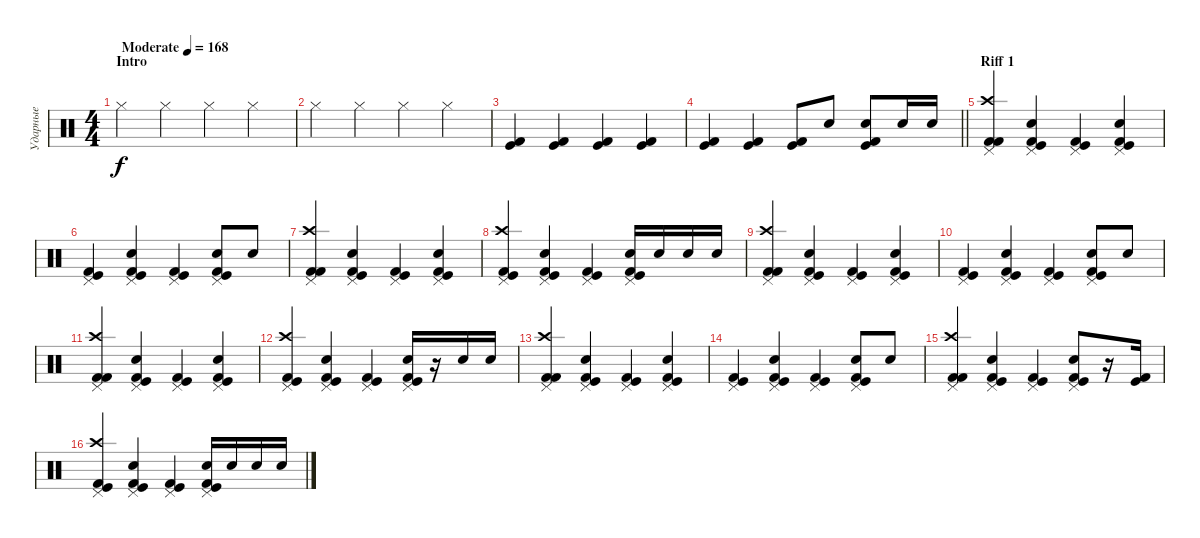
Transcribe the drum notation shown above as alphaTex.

\track ("Ударные" "Ударные") {instrument percussion}
\staff {score}
\articulation defaults
\ts (4 4)
\section ("" "Intro")
\tempo (168 "Moderate")
\clef neutral
\ks c "Hi-Hat (closed)".4{dy f} "Hi-Hat (closed)".4 "Hi-Hat (closed)".4 "Hi-Hat (closed)".4
|
"Hi-Hat (closed)".4 "Hi-Hat (closed)".4 "Hi-Hat (closed)".4 "Hi-Hat (closed)".4 |
("Kick (hit)" "Kick (hit) 2").4 ("Kick (hit)" "Kick (hit) 2").4 ("Kick (hit)" "Kick (hit) 2").4 ("Kick (hit)" "Kick (hit) 2").4 |
\barLineRight lightlight
("Kick (hit)" "Kick (hit) 2").4 ("Kick (hit)" "Kick (hit) 2").4 ("Kick (hit)" "Kick (hit) 2").8 "Electric Snare (hit)".8 ("Electric Snare (hit)" "Kick (hit)" "Kick (hit) 2").8 "Electric Snare (hit)".16 "Electric Snare (hit)".16 |
\section ("" "Riff 1")
("Crash high (hit)" "Pedal Hi-Hat (hit)" "Kick (hit) 2" "Kick (hit) 2").4 ("Pedal Hi-Hat (hit)" "Electric Snare (hit)" "Kick (hit)" "Kick (hit) 2").4 ("Pedal Hi-Hat (hit)" "Kick (hit)" "Kick (hit) 2").4 ("Pedal Hi-Hat (hit)" "Electric Snare (hit)" "Kick (hit)" "Kick (hit) 2").4 |
("Pedal Hi-Hat (hit)" "Kick (hit)" "Kick (hit) 2").4 ("Pedal Hi-Hat (hit)" "Electric Snare (hit)" "Kick (hit)" "Kick (hit) 2").4 ("Pedal Hi-Hat (hit)" "Kick (hit)" "Kick (hit) 2").4 ("Pedal Hi-Hat (hit)" "Electric Snare (hit)" "Kick (hit)" "Kick (hit) 2").8 "Electric Snare (hit)".8 |
("Crash high (hit)" "Pedal Hi-Hat (hit)" "Kick (hit) 2" "Kick (hit) 2").4 ("Pedal Hi-Hat (hit)" "Electric Snare (hit)" "Kick (hit)" "Kick (hit) 2").4 ("Pedal Hi-Hat (hit)" "Kick (hit)" "Kick (hit) 2").4 ("Pedal Hi-Hat (hit)" "Electric Snare (hit)" "Kick (hit)" "Kick (hit) 2").4 |
("Crash high (hit)" "Pedal Hi-Hat (hit)" "Kick (hit)" "Kick (hit) 2").4 ("Pedal Hi-Hat (hit)" "Electric Snare (hit)" "Kick (hit)" "Kick (hit) 2").4 ("Pedal Hi-Hat (hit)" "Kick (hit)" "Kick (hit) 2").4 ("Pedal Hi-Hat (hit)" "Electric Snare (hit)" "Kick (hit)" "Kick (hit) 2").16 "Electric Snare (hit)".16 "Electric Snare (hit)".16 "Electric Snare (hit)".16 |
("Crash high (hit)" "Pedal Hi-Hat (hit)" "Kick (hit) 2" "Kick (hit) 2").4 ("Pedal Hi-Hat (hit)" "Electric Snare (hit)" "Kick (hit)" "Kick (hit) 2").4 ("Pedal Hi-Hat (hit)" "Kick (hit)" "Kick (hit) 2").4 ("Pedal Hi-Hat (hit)" "Electric Snare (hit)" "Kick (hit)" "Kick (hit) 2").4 |
("Pedal Hi-Hat (hit)" "Kick (hit)" "Kick (hit) 2").4 ("Pedal Hi-Hat (hit)" "Electric Snare (hit)" "Kick (hit)" "Kick (hit) 2").4 ("Pedal Hi-Hat (hit)" "Kick (hit)" "Kick (hit) 2").4 ("Pedal Hi-Hat (hit)" "Electric Snare (hit)" "Kick (hit)" "Kick (hit) 2").8 "Electric Snare (hit)".8 |
("Crash high (hit)" "Pedal Hi-Hat (hit)" "Kick (hit) 2" "Kick (hit) 2").4 ("Pedal Hi-Hat (hit)" "Electric Snare (hit)" "Kick (hit)" "Kick (hit) 2").4 ("Pedal Hi-Hat (hit)" "Kick (hit)" "Kick (hit) 2").4 ("Pedal Hi-Hat (hit)" "Electric Snare (hit)" "Kick (hit)" "Kick (hit) 2").4 |
("Crash high (hit)" "Pedal Hi-Hat (hit)" "Kick (hit)" "Kick (hit) 2").4 ("Pedal Hi-Hat (hit)" "Electric Snare (hit)" "Kick (hit)" "Kick (hit) 2").4 ("Pedal Hi-Hat (hit)" "Kick (hit)" "Kick (hit) 2").4 ("Pedal Hi-Hat (hit)" "Electric Snare (hit)" "Kick (hit)" "Kick (hit) 2").16 r.16 "Electric Snare (hit)".16 "Electric Snare (hit)".16 |
("Crash high (hit)" "Pedal Hi-Hat (hit)" "Kick (hit) 2" "Kick (hit) 2").4 ("Pedal Hi-Hat (hit)" "Electric Snare (hit)" "Kick (hit)" "Kick (hit) 2").4 ("Pedal Hi-Hat (hit)" "Kick (hit)" "Kick (hit) 2").4 ("Pedal Hi-Hat (hit)" "Electric Snare (hit)" "Kick (hit)" "Kick (hit) 2").4 |
("Pedal Hi-Hat (hit)" "Kick (hit)" "Kick (hit) 2").4 ("Pedal Hi-Hat (hit)" "Electric Snare (hit)" "Kick (hit)" "Kick (hit) 2").4 ("Pedal Hi-Hat (hit)" "Kick (hit)" "Kick (hit) 2").4 ("Pedal Hi-Hat (hit)" "Electric Snare (hit)" "Kick (hit)" "Kick (hit) 2").8 "Electric Snare (hit)".8 |
("Crash high (hit)" "Pedal Hi-Hat (hit)" "Kick (hit) 2" "Kick (hit) 2").4 ("Pedal Hi-Hat (hit)" "Electric Snare (hit)" "Kick (hit)" "Kick (hit) 2").4 ("Pedal Hi-Hat (hit)" "Kick (hit)" "Kick (hit) 2").4 ("Pedal Hi-Hat (hit)" "Electric Snare (hit)" "Kick (hit)" "Kick (hit) 2").8 r.16 ("Kick (hit)" "Kick (hit) 2").16 |
("Crash high (hit)" "Pedal Hi-Hat (hit)" "Kick (hit)" "Kick (hit) 2").4 ("Pedal Hi-Hat (hit)" "Electric Snare (hit)" "Kick (hit)" "Kick (hit) 2").4 ("Pedal Hi-Hat (hit)" "Kick (hit)" "Kick (hit) 2").4 ("Pedal Hi-Hat (hit)" "Electric Snare (hit)" "Kick (hit)" "Kick (hit) 2").16 "Electric Snare (hit)".16 "Electric Snare (hit)".16 "Electric Snare (hit)".16
